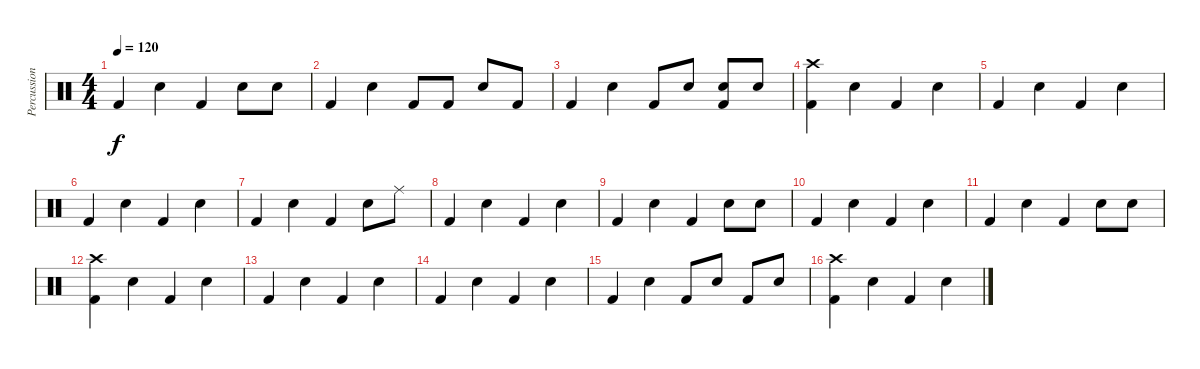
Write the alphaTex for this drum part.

\track ("Percussion" "Percussion") {instrument percussion}
\staff {score}
\articulation defaults
\ts (4 4)
\tempo 120
\clef neutral
\ks c "Kick (hit) 2".4{dy f} "Electric Snare (hit)".4 "Kick (hit) 2".4 "Electric Snare (hit)".8 "Electric Snare (hit)".8
|
"Kick (hit) 2".4 "Snare (hit) 2".4 "Kick (hit) 2".8 "Kick (hit) 2".8 "Snare (hit) 2".8 "Kick (hit) 2".8 |
"Kick (hit) 2".4 "Snare (hit) 2".4 "Kick (hit) 2".8 "Snare (hit) 2".8 ("Snare (hit) 2" "Kick (hit) 2").8 "Snare (hit) 2".8 |
("Crash high (hit)" "Kick (hit) 2").4 "Electric Snare (hit)".4 "Kick (hit) 2".4 "Electric Snare (hit)".4 |
"Kick (hit) 2".4 "Electric Snare (hit)".4 "Kick (hit) 2".4 "Electric Snare (hit)".4 |
"Kick (hit) 2".4 "Electric Snare (hit)".4 "Kick (hit) 2".4 "Electric Snare (hit)".4 |
"Kick (hit) 2".4 "Electric Snare (hit)".4 "Kick (hit) 2".4 "Electric Snare (hit)".8 "Ride (middle)".8 |
"Kick (hit) 2".4 "Electric Snare (hit)".4 "Kick (hit) 2".4 "Electric Snare (hit)".4 |
"Kick (hit) 2".4 "Electric Snare (hit)".4 "Kick (hit) 2".4 "Electric Snare (hit)".8 "Electric Snare (hit)".8 |
"Kick (hit) 2".4 "Electric Snare (hit)".4 "Kick (hit) 2".4 "Electric Snare (hit)".4 |
"Kick (hit) 2".4 "Electric Snare (hit)".4 "Kick (hit) 2".4 "Electric Snare (hit)".8 "Electric Snare (hit)".8 |
("Crash high (hit)" "Kick (hit) 2").4 "Electric Snare (hit)".4 "Kick (hit) 2".4 "Electric Snare (hit)".4 |
"Kick (hit) 2".4 "Electric Snare (hit)".4 "Kick (hit) 2".4 "Electric Snare (hit)".4 |
"Kick (hit) 2".4 "Electric Snare (hit)".4 "Kick (hit) 2".4 "Electric Snare (hit)".4 |
"Kick (hit) 2".4 "Snare (hit) 2".4 "Kick (hit) 2".8 "Snare (hit) 2".8 "Kick (hit) 2".8 "Snare (hit) 2".8 |
("Crash high (hit)" "Kick (hit) 2").4 "Electric Snare (hit)".4 "Kick (hit) 2".4 "Electric Snare (hit)".4
